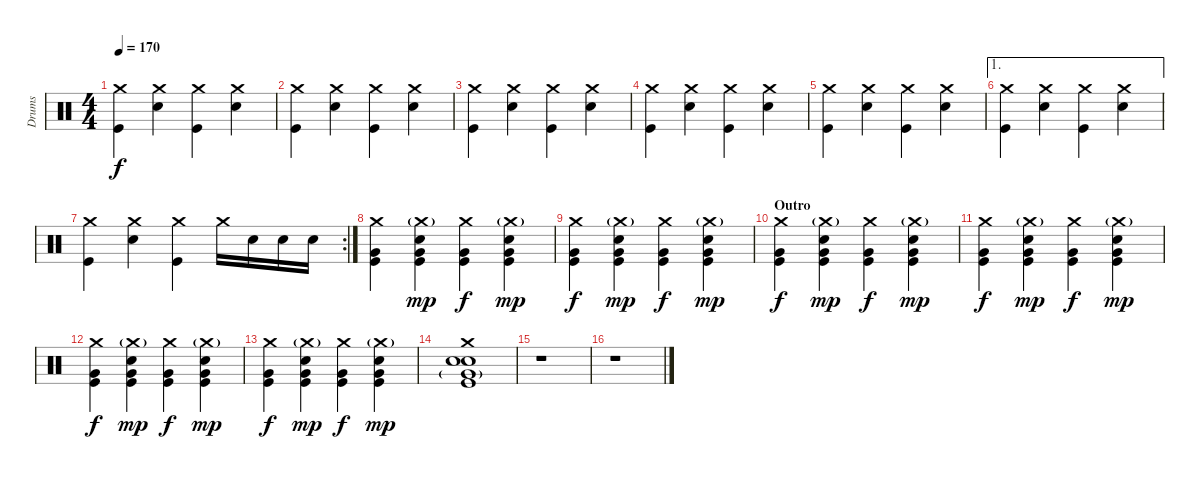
\track ("Drums" "Drums") {instrument percussion}
\staff {score}
\articulation defaults
\ts (4 4)
\tempo 170
\clef neutral
\ks c
("Crash medium (hit)" "Kick (hit)").4{dy f} ("Crash medium (hit)" "Snare (hit) 2").4 ("Crash medium (hit)" "Kick (hit)").4 ("Crash medium (hit)" "Snare (hit) 2").4 |
("Crash medium (hit)" "Kick (hit)").4 ("Crash medium (hit)" "Snare (hit) 2").4 ("Crash medium (hit)" "Kick (hit)").4 ("Crash medium (hit)" "Snare (hit) 2").4 |
("Crash medium (hit)" "Kick (hit)").4 ("Crash medium (hit)" "Snare (hit) 2").4 ("Crash medium (hit)" "Kick (hit)").4 ("Crash medium (hit)" "Snare (hit) 2").4 |
("Crash medium (hit)" "Kick (hit)").4 ("Crash medium (hit)" "Snare (hit) 2").4 ("Crash medium (hit)" "Kick (hit)").4 ("Crash medium (hit)" "Snare (hit) 2").4 |
("Crash medium (hit)" "Kick (hit)").4 ("Crash medium (hit)" "Snare (hit) 2").4 ("Crash medium (hit)" "Kick (hit)").4 ("Crash medium (hit)" "Snare (hit) 2").4 |
\ae 1
("Crash medium (hit)" "Kick (hit)").4 ("Crash medium (hit)" "Snare (hit) 2").4 ("Crash medium (hit)" "Kick (hit)").4 ("Crash medium (hit)" "Snare (hit) 2").4 |
\rc 2
("Crash medium (hit)" "Kick (hit)").4 ("Crash medium (hit)" "Snare (hit) 2").4 ("Crash medium (hit)" "Kick (hit)").4 "Crash medium (hit)".16 "Snare (hit) 2".16 "Snare (hit) 2".16 "Snare (hit) 2".16 |
("Crash medium (hit)" "Very Low Tom (hit)" "Kick (hit)").4 ("Crash medium (hit)"{g} "Very Low Tom (hit)" "Snare (hit) 2" "Kick (hit)").4{dy mp} ("Crash medium (hit)" "Very Low Tom (hit)" "Kick (hit)").4{dy f} ("Crash medium (hit)"{g} "Very Low Tom (hit)" "Snare (hit) 2" "Kick (hit)").4{dy mp} |
("Crash medium (hit)" "Very Low Tom (hit)" "Kick (hit)").4{dy f} ("Crash medium (hit)"{g} "Very Low Tom (hit)" "Snare (hit) 2" "Kick (hit)").4{dy mp} ("Crash medium (hit)" "Very Low Tom (hit)" "Kick (hit)").4{dy f} ("Crash medium (hit)"{g} "Very Low Tom (hit)" "Snare (hit) 2" "Kick (hit)").4{dy mp} |
\section ("" "Outro")
("Crash medium (hit)" "Very Low Tom (hit)" "Kick (hit)").4{dy f} ("Crash medium (hit)"{g} "Very Low Tom (hit)" "Snare (hit) 2" "Kick (hit)").4{dy mp} ("Crash medium (hit)" "Very Low Tom (hit)" "Kick (hit)").4{dy f} ("Crash medium (hit)"{g} "Very Low Tom (hit)" "Snare (hit) 2" "Kick (hit)").4{dy mp} |
("Crash medium (hit)" "Very Low Tom (hit)" "Kick (hit)").4{dy f} ("Crash medium (hit)"{g} "Very Low Tom (hit)" "Snare (hit) 2" "Kick (hit)").4{dy mp} ("Crash medium (hit)" "Very Low Tom (hit)" "Kick (hit)").4{dy f} ("Crash medium (hit)"{g} "Very Low Tom (hit)" "Snare (hit) 2" "Kick (hit)").4{dy mp} |
("Crash medium (hit)" "Very Low Tom (hit)" "Kick (hit)").4{dy f} ("Crash medium (hit)"{g} "Very Low Tom (hit)" "Snare (hit) 2" "Kick (hit)").4{dy mp} ("Crash medium (hit)" "Very Low Tom (hit)" "Kick (hit)").4{dy f} ("Crash medium (hit)"{g} "Very Low Tom (hit)" "Snare (hit) 2" "Kick (hit)").4{dy mp} |
("Crash medium (hit)" "Very Low Tom (hit)" "Kick (hit)").4{dy f} ("Crash medium (hit)"{g} "Very Low Tom (hit)" "Snare (hit) 2" "Kick (hit)").4{dy mp} ("Crash medium (hit)" "Very Low Tom (hit)" "Kick (hit)").4{dy f} ("Crash medium (hit)"{g} "Very Low Tom (hit)" "Snare (hit) 2" "Kick (hit)").4{dy mp} |
("Crash medium (hit)" "Very Low Tom (hit)"{g} "Snare (hit) 2" "Snare (hit) 2" "Kick (hit)").1 |
r.1 |
r.1
